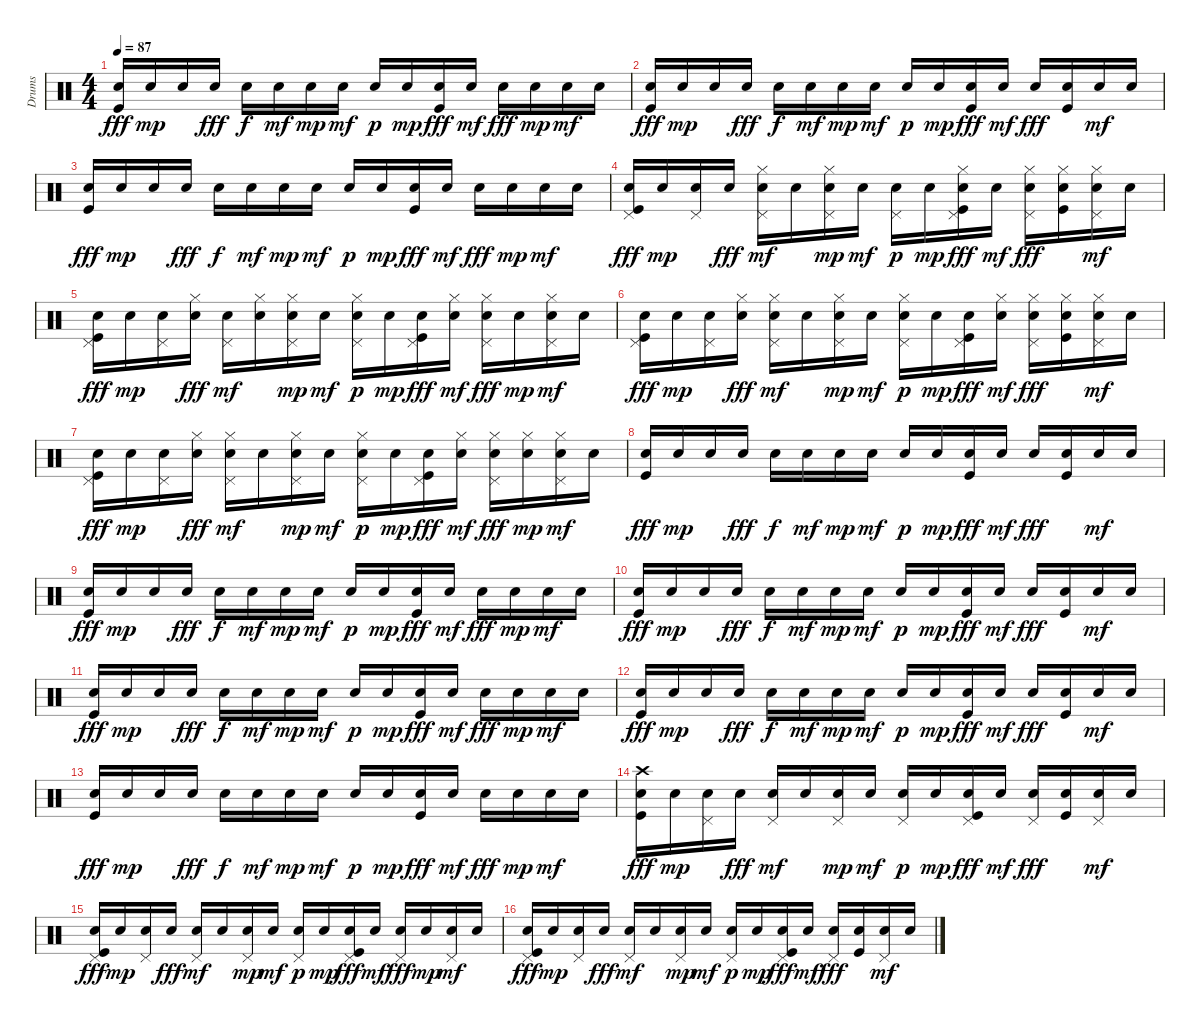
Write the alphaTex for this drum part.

\track ("Drums" "Drums") {instrument percussion}
\staff {score}
\articulation defaults
\ts (4 4)
\tempo 87
\clef neutral
\ks c
("Snare (hit) 2" "Kick (hit)").16{dy fff} "Snare (hit) 2".16{dy mp} "Snare (hit) 2".16 "Hand Clap (hit)".16{dy fff} "Snare (hit) 2".16{dy f} "Snare (hit) 2".16{dy mf} "Snare (hit) 2".16{dy mp} "Snare (hit) 2".16{dy mf} "Snare (hit) 2".16{dy p} "Snare (hit) 2".16{dy mp} ("Snare (hit) 2" "Kick (hit)").16{dy fff} "Snare (hit) 2".16{dy mf} "Hand Clap (hit)".16{dy fff} "Snare (hit) 2".16{dy mp} "Snare (hit) 2".16{dy mf} "Snare (hit) 2".16 |
("Snare (hit) 2" "Kick (hit)").16{dy fff} "Snare (hit) 2".16{dy mp} "Snare (hit) 2".16 "Hand Clap (hit)".16{dy fff} "Snare (hit) 2".16{dy f} "Snare (hit) 2".16{dy mf} "Snare (hit) 2".16{dy mp} "Snare (hit) 2".16{dy mf} "Snare (hit) 2".16{dy p} "Snare (hit) 2".16{dy mp} ("Snare (hit) 2" "Kick (hit)").16{dy fff} "Snare (hit) 2".16{dy mf} "Hand Clap (hit)".16{dy fff} ("Snare (hit) 2" "Kick (hit)").16 "Snare (hit) 2".16{dy mf} "Snare (hit) 2".16 |
("Snare (hit) 2" "Kick (hit)").16{dy fff} "Snare (hit) 2".16{dy mp} "Snare (hit) 2".16 "Hand Clap (hit)".16{dy fff} "Snare (hit) 2".16{dy f} "Snare (hit) 2".16{dy mf} "Snare (hit) 2".16{dy mp} "Snare (hit) 2".16{dy mf} "Snare (hit) 2".16{dy p} "Snare (hit) 2".16{dy mp} ("Snare (hit) 2" "Kick (hit)").16{dy fff} "Snare (hit) 2".16{dy mf} "Hand Clap (hit)".16{dy fff} "Snare (hit) 2".16{dy mp} "Snare (hit) 2".16{dy mf} "Snare (hit) 2".16 |
("Pedal Hi-Hat (hit)" "Snare (hit) 2" "Kick (hit)").16{dy fff} "Snare (hit) 2".16{dy mp} ("Pedal Hi-Hat (hit)" "Snare (hit) 2").16 "Hand Clap (hit)".16{dy fff} ("Pedal Hi-Hat (hit)" "Hi-Hat (closed)" "Snare (hit) 2").16{dy mf} "Snare (hit) 2".16 ("Pedal Hi-Hat (hit)" "Hi-Hat (closed)" "Snare (hit) 2").16{dy mp} "Snare (hit) 2".16{dy mf} ("Pedal Hi-Hat (hit)" "Snare (hit) 2").16{dy p} "Snare (hit) 2".16{dy mp} ("Pedal Hi-Hat (hit)" "Hi-Hat (closed)" "Snare (hit) 2" "Kick (hit)").16{dy fff} "Snare (hit) 2".16{dy mf} ("Pedal Hi-Hat (hit)" "Hi-Hat (closed)" "Hand Clap (hit)").16{dy fff} ("Hi-Hat (closed)" "Snare (hit) 2" "Kick (hit)").16 ("Pedal Hi-Hat (hit)" "Hi-Hat (closed)" "Snare (hit) 2").16{dy mf} "Snare (hit) 2".16 |
("Pedal Hi-Hat (hit)" "Snare (hit) 2" "Kick (hit)").16{dy fff} "Snare (hit) 2".16{dy mp} ("Pedal Hi-Hat (hit)" "Snare (hit) 2").16 ("Hi-Hat (closed)" "Hand Clap (hit)").16{dy fff} ("Pedal Hi-Hat (hit)" "Snare (hit) 2").16{dy mf} ("Hi-Hat (closed)" "Snare (hit) 2").16 ("Pedal Hi-Hat (hit)" "Hi-Hat (closed)" "Snare (hit) 2").16{dy mp} "Snare (hit) 2".16{dy mf} ("Pedal Hi-Hat (hit)" "Hi-Hat (closed)" "Snare (hit) 2").16{dy p} "Snare (hit) 2".16{dy mp} ("Pedal Hi-Hat (hit)" "Snare (hit) 2" "Kick (hit)").16{dy fff} ("Hi-Hat (closed)" "Snare (hit) 2").16{dy mf} ("Pedal Hi-Hat (hit)" "Hi-Hat (closed)" "Hand Clap (hit)").16{dy fff} "Snare (hit) 2".16{dy mp} ("Pedal Hi-Hat (hit)" "Hi-Hat (closed)" "Snare (hit) 2").16{dy mf} "Snare (hit) 2".16 |
("Pedal Hi-Hat (hit)" "Snare (hit) 2" "Kick (hit)").16{dy fff} "Snare (hit) 2".16{dy mp} ("Pedal Hi-Hat (hit)" "Snare (hit) 2").16 ("Hi-Hat (closed)" "Hand Clap (hit)").16{dy fff} ("Pedal Hi-Hat (hit)" "Hi-Hat (closed)" "Snare (hit) 2").16{dy mf} "Snare (hit) 2".16 ("Pedal Hi-Hat (hit)" "Hi-Hat (closed)" "Snare (hit) 2").16{dy mp} "Snare (hit) 2".16{dy mf} ("Pedal Hi-Hat (hit)" "Hi-Hat (closed)" "Snare (hit) 2").16{dy p} "Snare (hit) 2".16{dy mp} ("Pedal Hi-Hat (hit)" "Snare (hit) 2" "Kick (hit)").16{dy fff} ("Hi-Hat (closed)" "Snare (hit) 2").16{dy mf} ("Pedal Hi-Hat (hit)" "Hi-Hat (closed)" "Hand Clap (hit)").16{dy fff} ("Hi-Hat (closed)" "Snare (hit) 2" "Kick (hit)").16 ("Pedal Hi-Hat (hit)" "Hi-Hat (closed)" "Snare (hit) 2").16{dy mf} "Snare (hit) 2".16 |
("Pedal Hi-Hat (hit)" "Snare (hit) 2" "Kick (hit)").16{dy fff} "Snare (hit) 2".16{dy mp} ("Pedal Hi-Hat (hit)" "Snare (hit) 2").16 ("Hi-Hat (closed)" "Hand Clap (hit)").16{dy fff} ("Pedal Hi-Hat (hit)" "Hi-Hat (closed)" "Snare (hit) 2").16{dy mf} "Snare (hit) 2".16 ("Pedal Hi-Hat (hit)" "Hi-Hat (closed)" "Snare (hit) 2").16{dy mp} "Snare (hit) 2".16{dy mf} ("Pedal Hi-Hat (hit)" "Hi-Hat (closed)" "Snare (hit) 2").16{dy p} "Snare (hit) 2".16{dy mp} ("Pedal Hi-Hat (hit)" "Snare (hit) 2" "Kick (hit)").16{dy fff} ("Hi-Hat (closed)" "Snare (hit) 2").16{dy mf} ("Pedal Hi-Hat (hit)" "Hi-Hat (closed)" "Hand Clap (hit)").16{dy fff} ("Hi-Hat (closed)" "Snare (hit) 2").16{dy mp} ("Pedal Hi-Hat (hit)" "Hi-Hat (closed)" "Snare (hit) 2").16{dy mf} "Snare (hit) 2".16 |
("Snare (hit) 2" "Kick (hit)").16{dy fff} "Snare (hit) 2".16{dy mp} "Snare (hit) 2".16 "Hand Clap (hit)".16{dy fff} "Snare (hit) 2".16{dy f} "Snare (hit) 2".16{dy mf} "Snare (hit) 2".16{dy mp} "Snare (hit) 2".16{dy mf} "Snare (hit) 2".16{dy p} "Snare (hit) 2".16{dy mp} ("Snare (hit) 2" "Kick (hit)").16{dy fff} "Snare (hit) 2".16{dy mf} "Hand Clap (hit)".16{dy fff} ("Snare (hit) 2" "Kick (hit)").16 "Snare (hit) 2".16{dy mf} "Snare (hit) 2".16 |
("Snare (hit) 2" "Kick (hit)").16{dy fff} "Snare (hit) 2".16{dy mp} "Snare (hit) 2".16 "Hand Clap (hit)".16{dy fff} "Snare (hit) 2".16{dy f} "Snare (hit) 2".16{dy mf} "Snare (hit) 2".16{dy mp} "Snare (hit) 2".16{dy mf} "Snare (hit) 2".16{dy p} "Snare (hit) 2".16{dy mp} ("Snare (hit) 2" "Kick (hit)").16{dy fff} "Snare (hit) 2".16{dy mf} "Hand Clap (hit)".16{dy fff} "Snare (hit) 2".16{dy mp} "Snare (hit) 2".16{dy mf} "Snare (hit) 2".16 |
("Snare (hit) 2" "Kick (hit)").16{dy fff} "Snare (hit) 2".16{dy mp} "Snare (hit) 2".16 "Hand Clap (hit)".16{dy fff} "Snare (hit) 2".16{dy f} "Snare (hit) 2".16{dy mf} "Snare (hit) 2".16{dy mp} "Snare (hit) 2".16{dy mf} "Snare (hit) 2".16{dy p} "Snare (hit) 2".16{dy mp} ("Snare (hit) 2" "Kick (hit)").16{dy fff} "Snare (hit) 2".16{dy mf} "Hand Clap (hit)".16{dy fff} ("Snare (hit) 2" "Kick (hit)").16 "Snare (hit) 2".16{dy mf} "Snare (hit) 2".16 |
("Snare (hit) 2" "Kick (hit)").16{dy fff} "Snare (hit) 2".16{dy mp} "Snare (hit) 2".16 "Hand Clap (hit)".16{dy fff} "Snare (hit) 2".16{dy f} "Snare (hit) 2".16{dy mf} "Snare (hit) 2".16{dy mp} "Snare (hit) 2".16{dy mf} "Snare (hit) 2".16{dy p} "Snare (hit) 2".16{dy mp} ("Snare (hit) 2" "Kick (hit)").16{dy fff} "Snare (hit) 2".16{dy mf} "Hand Clap (hit)".16{dy fff} "Snare (hit) 2".16{dy mp} "Snare (hit) 2".16{dy mf} "Snare (hit) 2".16 |
("Snare (hit) 2" "Kick (hit)").16{dy fff} "Snare (hit) 2".16{dy mp} "Snare (hit) 2".16 "Hand Clap (hit)".16{dy fff} "Snare (hit) 2".16{dy f} "Snare (hit) 2".16{dy mf} "Snare (hit) 2".16{dy mp} "Snare (hit) 2".16{dy mf} "Snare (hit) 2".16{dy p} "Snare (hit) 2".16{dy mp} ("Snare (hit) 2" "Kick (hit)").16{dy fff} "Snare (hit) 2".16{dy mf} "Hand Clap (hit)".16{dy fff} ("Snare (hit) 2" "Kick (hit)").16 "Snare (hit) 2".16{dy mf} "Snare (hit) 2".16 |
("Snare (hit) 2" "Kick (hit)").16{dy fff} "Snare (hit) 2".16{dy mp} "Snare (hit) 2".16 "Hand Clap (hit)".16{dy fff} "Snare (hit) 2".16{dy f} "Snare (hit) 2".16{dy mf} "Snare (hit) 2".16{dy mp} "Snare (hit) 2".16{dy mf} "Snare (hit) 2".16{dy p} "Snare (hit) 2".16{dy mp} ("Snare (hit) 2" "Kick (hit)").16{dy fff} "Snare (hit) 2".16{dy mf} "Hand Clap (hit)".16{dy fff} "Snare (hit) 2".16{dy mp} "Snare (hit) 2".16{dy mf} "Snare (hit) 2".16 |
("Crash high (hit)" "Snare (hit) 2" "Kick (hit)").16{dy fff} "Snare (hit) 2".16{dy mp} ("Pedal Hi-Hat (hit)" "Snare (hit) 2").16 "Hand Clap (hit)".16{dy fff} ("Pedal Hi-Hat (hit)" "Snare (hit) 2").16{dy mf} "Snare (hit) 2".16 ("Pedal Hi-Hat (hit)" "Snare (hit) 2").16{dy mp} "Snare (hit) 2".16{dy mf} ("Pedal Hi-Hat (hit)" "Snare (hit) 2").16{dy p} "Snare (hit) 2".16{dy mp} ("Pedal Hi-Hat (hit)" "Snare (hit) 2" "Kick (hit)").16{dy fff} "Snare (hit) 2".16{dy mf} ("Pedal Hi-Hat (hit)" "Hand Clap (hit)").16{dy fff} ("Snare (hit) 2" "Kick (hit)").16 ("Pedal Hi-Hat (hit)" "Snare (hit) 2").16{dy mf} "Snare (hit) 2".16 |
("Pedal Hi-Hat (hit)" "Snare (hit) 2" "Kick (hit)").16{dy fff} "Snare (hit) 2".16{dy mp} ("Pedal Hi-Hat (hit)" "Snare (hit) 2").16 "Hand Clap (hit)".16{dy fff} ("Pedal Hi-Hat (hit)" "Snare (hit) 2").16{dy mf} "Snare (hit) 2".16 ("Pedal Hi-Hat (hit)" "Snare (hit) 2").16{dy mp} "Snare (hit) 2".16{dy mf} ("Pedal Hi-Hat (hit)" "Snare (hit) 2").16{dy p} "Snare (hit) 2".16{dy mp} ("Pedal Hi-Hat (hit)" "Snare (hit) 2" "Kick (hit)").16{dy fff} "Snare (hit) 2".16{dy mf} ("Pedal Hi-Hat (hit)" "Hand Clap (hit)").16{dy fff} "Snare (hit) 2".16{dy mp} ("Pedal Hi-Hat (hit)" "Snare (hit) 2").16{dy mf} "Snare (hit) 2".16 |
("Pedal Hi-Hat (hit)" "Snare (hit) 2" "Kick (hit)").16{dy fff} "Snare (hit) 2".16{dy mp} ("Pedal Hi-Hat (hit)" "Snare (hit) 2").16 "Hand Clap (hit)".16{dy fff} ("Pedal Hi-Hat (hit)" "Snare (hit) 2").16{dy mf} "Snare (hit) 2".16 ("Pedal Hi-Hat (hit)" "Snare (hit) 2").16{dy mp} "Snare (hit) 2".16{dy mf} ("Pedal Hi-Hat (hit)" "Snare (hit) 2").16{dy p} "Snare (hit) 2".16{dy mp} ("Pedal Hi-Hat (hit)" "Snare (hit) 2" "Kick (hit)").16{dy fff} "Snare (hit) 2".16{dy mf} ("Pedal Hi-Hat (hit)" "Hand Clap (hit)").16{dy fff} ("Snare (hit) 2" "Kick (hit)").16 ("Pedal Hi-Hat (hit)" "Snare (hit) 2").16{dy mf} "Snare (hit) 2".16
